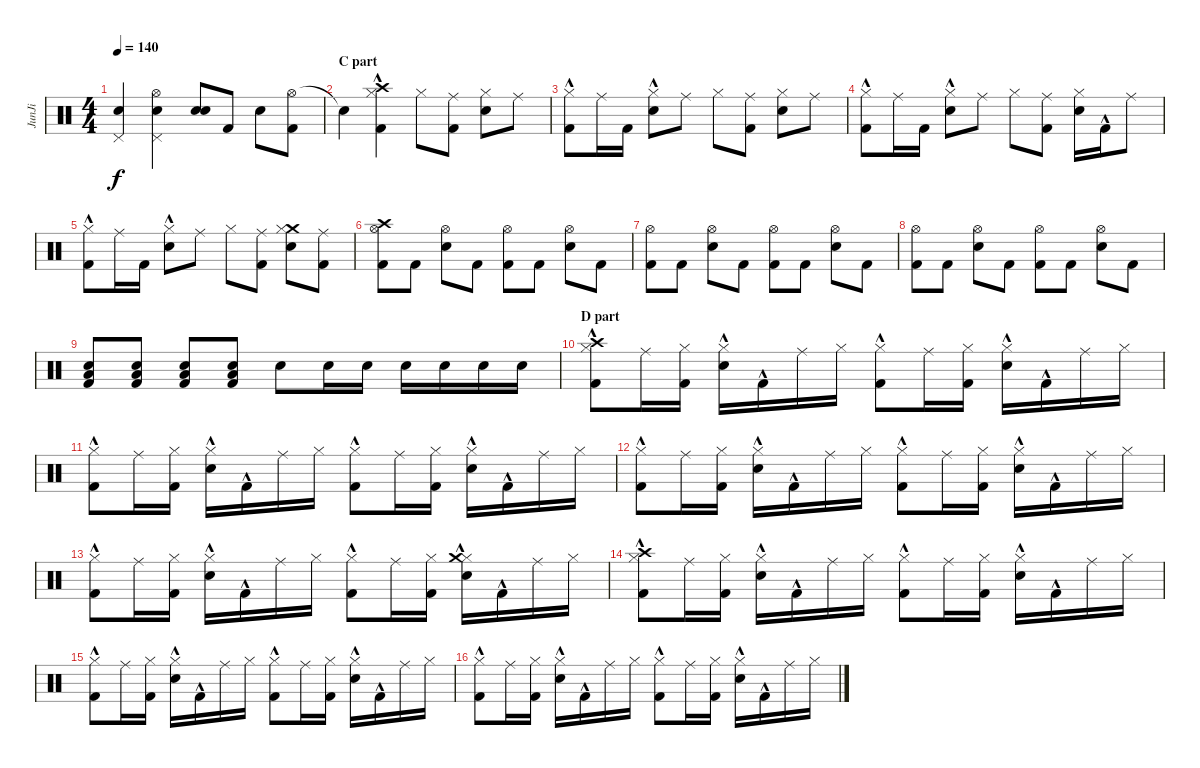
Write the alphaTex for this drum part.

\track ("JunJi" "JunJi") {instrument percussion}
\staff {score}
\articulation defaults
\ts (4 4)
\tempo 140
\clef neutral
\ks c
("Pedal Hi-Hat (hit)" "Electric Snare (hit)").4{dy f} ("Electric Snare (hit)" "Pedal Hi-Hat (hit)" "Hi-Hat (open)").4 ("Electric Snare (hit)" "Electric Snare (hit)").8 "Kick (hit) 2".8 "Electric Snare (hit)".8 ("Hi-Hat (open)" "Kick (hit) 2").8 |
\section ("" "C part")
"Snare (hit)"{t}.4 ("Hi-Hat (closed)" "Crash high (hit)" "Kick (hit) 2"{hac}).4 "Hi-Hat (closed)".8 ("Ride (middle)" "Kick (hit) 2").8 ("Hi-Hat (closed)" "Electric Snare (hit)").8 "Ride (middle)".8 |
("Kick (hit) 2"{hac} "Hi-Hat (closed)").8 "Ride (middle)".16 "Kick (hit) 2".16 ("Electric Snare (hit)"{hac} "Hi-Hat (closed)").8 "Ride (middle)".8 "Hi-Hat (closed)".8 ("Kick (hit) 2" "Ride (middle)").8 ("Electric Snare (hit)" "Hi-Hat (closed)").8 "Ride (middle)".8 |
("Kick (hit) 2"{hac} "Hi-Hat (closed)").8 "Ride (middle)".16 "Kick (hit) 2".16 ("Hi-Hat (closed)" "Electric Snare (hit)"{hac}).8 "Ride (middle)".8 "Hi-Hat (closed)".8 ("Kick (hit) 2" "Ride (middle)").8 ("Hi-Hat (closed)" "Electric Snare (hit)").16 "Kick (hit) 2"{hac}.16 "Ride (middle)".8 |
("Hi-Hat (closed)" "Kick (hit) 2"{hac}).8 "Ride (middle)".16 "Kick (hit) 2".16 ("Hi-Hat (closed)" "Electric Snare (hit)"{hac}).8 "Ride (middle)".8 "Hi-Hat (closed)".8 ("Kick (hit) 2" "Ride (middle)").8 ("Crash medium (hit)" "Hi-Hat (closed)" "Electric Snare (hit)").8 ("Kick (hit) 2" "Ride (middle)").8 |
("Crash high (hit)" "Hi-Hat (open)" "Kick (hit) 2").8 "Kick (hit) 2".8 ("Hi-Hat (open)" "Electric Snare (hit)").8 "Kick (hit) 2".8 ("Hi-Hat (open)" "Kick (hit) 2").8 "Kick (hit) 2".8 ("Hi-Hat (open)" "Electric Snare (hit)").8 "Kick (hit) 2".8 |
("Kick (hit) 2" "Hi-Hat (open)").8 "Kick (hit) 2".8 ("Hi-Hat (open)" "Electric Snare (hit)").8 "Kick (hit) 2".8 ("Kick (hit) 2" "Hi-Hat (open)").8 "Kick (hit) 2".8 ("Hi-Hat (open)" "Electric Snare (hit)").8 "Kick (hit) 2".8 |
("Kick (hit) 2" "Hi-Hat (open)").8 "Kick (hit) 2".8 ("Electric Snare (hit)" "Hi-Hat (open)").8 "Kick (hit) 2".8 ("Hi-Hat (open)" "Kick (hit) 2").8 "Kick (hit) 2".8 ("Hi-Hat (open)" "Electric Snare (hit)").8 "Kick (hit) 2".8 |
("Snare (hit) 2" "Low Floor Tom (hit)" "Kick (hit) 2").8 ("Snare (hit) 2" "Low Floor Tom (hit)" "Kick (hit) 2").8 ("Snare (hit) 2" "Low Floor Tom (hit)" "Kick (hit) 2").8 ("Electric Snare (hit)" "Low Floor Tom (hit)" "Kick (hit) 2").8 "Electric Snare (hit)".8 "Electric Snare (hit)".16 "Electric Snare (hit)".16 "Electric Snare (hit)".16 "Electric Snare (hit)".16 "Electric Snare (hit)".16 "Electric Snare (hit)".16 |
\section ("" "D part")
("Hi-Hat (closed)"{hac} "Crash high (hit)" "Kick (hit) 2"{hac}).8 "Ride (middle)".16 ("Hi-Hat (closed)" "Kick (hit) 2").16 ("Electric Snare (hit)" "Hi-Hat (closed)"{hac}).16 "Kick (hit) 2"{hac}.16 "Ride (middle)".16 "Hi-Hat (closed)".16 ("Kick (hit) 2"{hac} "Hi-Hat (closed)"{hac}).8 "Ride (middle)".16 ("Kick (hit) 2" "Hi-Hat (closed)").16 ("Electric Snare (hit)" "Hi-Hat (closed)"{hac}).16 "Kick (hit) 2"{hac}.16 "Ride (middle)".16 "Hi-Hat (closed)".16 |
("Kick (hit) 2"{hac} "Hi-Hat (closed)"{hac}).8 "Ride (middle)".16 ("Hi-Hat (closed)" "Kick (hit) 2").16 ("Hi-Hat (closed)"{hac} "Electric Snare (hit)").16 "Kick (hit) 2"{hac}.16 "Ride (middle)".16 "Hi-Hat (closed)".16 ("Hi-Hat (closed)"{hac} "Kick (hit) 2"{hac}).8 "Ride (middle)".16 ("Kick (hit) 2" "Hi-Hat (closed)").16 ("Hi-Hat (closed)"{hac} "Electric Snare (hit)").16 "Kick (hit) 2"{hac}.16 "Ride (middle)".16 "Hi-Hat (closed)".16 |
("Kick (hit) 2"{hac} "Hi-Hat (closed)"{hac}).8 "Ride (middle)".16 ("Hi-Hat (closed)" "Kick (hit) 2").16 ("Electric Snare (hit)" "Hi-Hat (closed)"{hac}).16 "Kick (hit) 2"{hac}.16 "Ride (middle)".16 "Hi-Hat (closed)".16 ("Kick (hit) 2"{hac} "Hi-Hat (closed)"{hac}).8 "Ride (middle)".16 ("Hi-Hat (closed)" "Kick (hit) 2").16 ("Electric Snare (hit)" "Hi-Hat (closed)"{hac}).16 "Kick (hit) 2"{hac}.16 "Ride (middle)".16 "Hi-Hat (closed)".16 |
("Hi-Hat (closed)"{hac} "Kick (hit) 2"{hac}).8 "Ride (middle)".16 ("Hi-Hat (closed)" "Kick (hit) 2").16 ("Electric Snare (hit)" "Hi-Hat (closed)"{hac}).16 "Kick (hit) 2"{hac}.16 "Ride (middle)".16 "Hi-Hat (closed)".16 ("Hi-Hat (closed)"{hac} "Kick (hit) 2"{hac}).8 "Ride (middle)".16 ("Hi-Hat (closed)" "Kick (hit) 2").16 ("Electric Snare (hit)" "Hi-Hat (closed)"{hac} "Crash medium (hit)").16 "Kick (hit) 2"{hac}.16 "Ride (middle)".16 "Hi-Hat (closed)".16 |
("Crash high (hit)" "Kick (hit) 2"{hac} "Hi-Hat (closed)"{hac}).8 "Ride (middle)".16 ("Kick (hit) 2" "Hi-Hat (closed)").16 ("Electric Snare (hit)" "Hi-Hat (closed)"{hac}).16 "Kick (hit) 2"{hac}.16 "Ride (middle)".16 "Hi-Hat (closed)".16 ("Hi-Hat (closed)"{hac} "Kick (hit) 2"{hac}).8 "Ride (middle)".16 ("Kick (hit) 2" "Hi-Hat (closed)").16 ("Hi-Hat (closed)"{hac} "Electric Snare (hit)").16 "Kick (hit) 2"{hac}.16 "Ride (middle)".16 "Hi-Hat (closed)".16 |
("Hi-Hat (closed)"{hac} "Kick (hit) 2"{hac}).8 "Ride (middle)".16 ("Hi-Hat (closed)" "Kick (hit) 2").16 ("Electric Snare (hit)" "Hi-Hat (closed)"{hac}).16 "Kick (hit) 2"{hac}.16 "Ride (middle)".16 "Hi-Hat (closed)".16 ("Kick (hit) 2"{hac} "Hi-Hat (closed)"{hac}).8 "Ride (middle)".16 ("Hi-Hat (closed)" "Kick (hit) 2").16 ("Electric Snare (hit)" "Hi-Hat (closed)"{hac}).16 "Kick (hit) 2"{hac}.16 "Ride (middle)".16 "Hi-Hat (closed)".16 |
("Kick (hit) 2"{hac} "Hi-Hat (closed)"{hac}).8 "Ride (middle)".16 ("Hi-Hat (closed)" "Kick (hit) 2").16 ("Hi-Hat (closed)"{hac} "Electric Snare (hit)").16 "Kick (hit) 2"{hac}.16 "Ride (middle)".16 "Hi-Hat (closed)".16 ("Kick (hit) 2"{hac} "Hi-Hat (closed)"{hac}).8 "Ride (middle)".16 ("Kick (hit) 2" "Hi-Hat (closed)").16 ("Electric Snare (hit)" "Hi-Hat (closed)"{hac}).16 "Kick (hit) 2"{hac}.16 "Ride (middle)".16 "Hi-Hat (closed)".16
